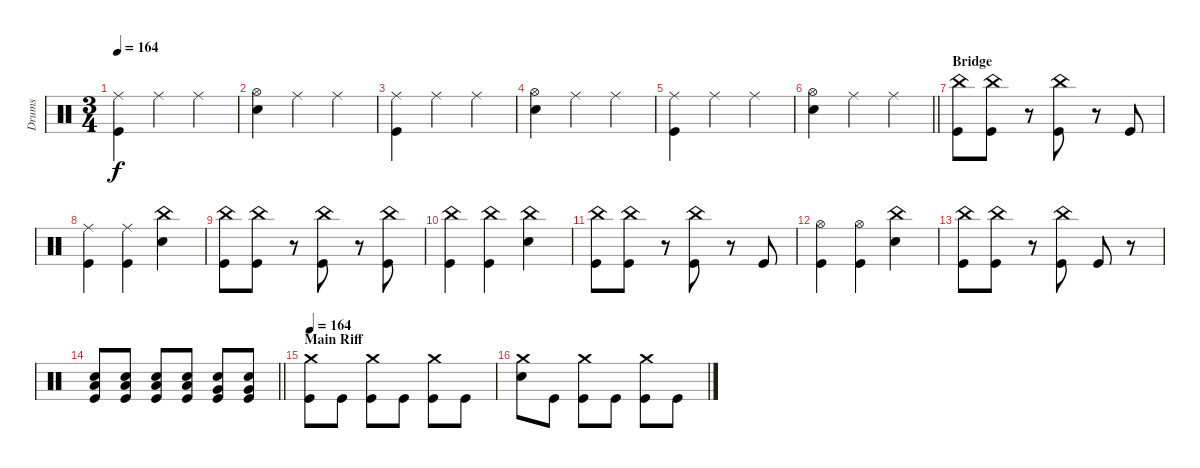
\track ("Drums" "Drums") {instrument percussion}
\staff {score}
\articulation defaults
\ts (3 4)
\tempo 164
\clef neutral
\ks c
("Ride (middle)" "Kick (hit)").4{dy f} "Ride (middle)".4 "Ride (middle)".4 |
("Hi-Hat (open)" "Electric Snare (hit)").4 "Ride (middle)".4 "Ride (middle)".4 |
("Ride (middle)" "Kick (hit)").4 "Ride (middle)".4 "Ride (middle)".4 |
("Hi-Hat (open)" "Electric Snare (hit)").4 "Ride (middle)".4 "Ride (middle)".4 |
("Ride (middle)" "Kick (hit)").4 "Ride (middle)".4 "Ride (middle)".4 |
\barLineRight lightlight
("Hi-Hat (open)" "Electric Snare (hit)").4 "Ride (middle)".4 "Ride (middle)".4 |
\section ("" "Bridge")
("China (hit)" "Kick (hit)").8 ("China (hit)" "Kick (hit)").8 r.8 ("China (hit)" "Kick (hit)").8 r.8 "Kick (hit)".8 |
("Ride (middle)" "Kick (hit)").4 ("Ride (middle)" "Kick (hit)").4 ("China (hit)" "Snare (hit) 2").4 |
("China (hit)" "Kick (hit)").8 ("China (hit)" "Kick (hit)").8 r.8 ("China (hit)" "Kick (hit)").8 r.8 ("China (hit)" "Kick (hit)").8 |
("China (hit)" "Kick (hit)").4 ("China (hit)" "Kick (hit)").4 ("China (hit)" "Snare (hit) 2").4 |
("China (hit)" "Kick (hit)").8 ("China (hit)" "Kick (hit)").8 r.8 ("China (hit)" "Kick (hit)").8 r.8 "Kick (hit)".8 |
("Hi-Hat (open)" "Kick (hit)").4 ("Hi-Hat (open)" "Kick (hit)").4 ("China (hit)" "Snare (hit) 2").4 |
("China (hit)" "Kick (hit)").8 ("China (hit)" "Kick (hit)").8 r.8 ("China (hit)" "Kick (hit)").8 "Kick (hit)".8 r.8 |
\barLineRight lightlight
("Snare (hit) 2" "Low Tom (hit)" "Kick (hit)").8 ("Snare (hit) 2" "Low Tom (hit)" "Kick (hit)").8 ("Snare (hit) 2" "Low Tom (hit)" "Kick (hit)").8 ("Snare (hit) 2" "Low Tom (hit)" "Kick (hit)").8 ("Snare (hit) 2" "Very Low Tom (hit)" "Kick (hit)").8 ("Snare (hit) 2" "Very Low Tom (hit)" "Kick (hit)").8 |
\section ("" "Main Riff")
\tempo 164
("Crash medium (hit)" "Kick (hit)").8 "Kick (hit)".8 ("Crash medium (hit)" "Kick (hit)").8 "Kick (hit)".8 ("Crash medium (hit)" "Kick (hit)").8 "Kick (hit)".8 |
("Crash medium (hit)" "Snare (hit) 2").8 "Kick (hit)".8 ("Crash medium (hit)" "Kick (hit)").8 "Kick (hit)".8 ("Crash medium (hit)" "Kick (hit)").8 "Kick (hit)".8
